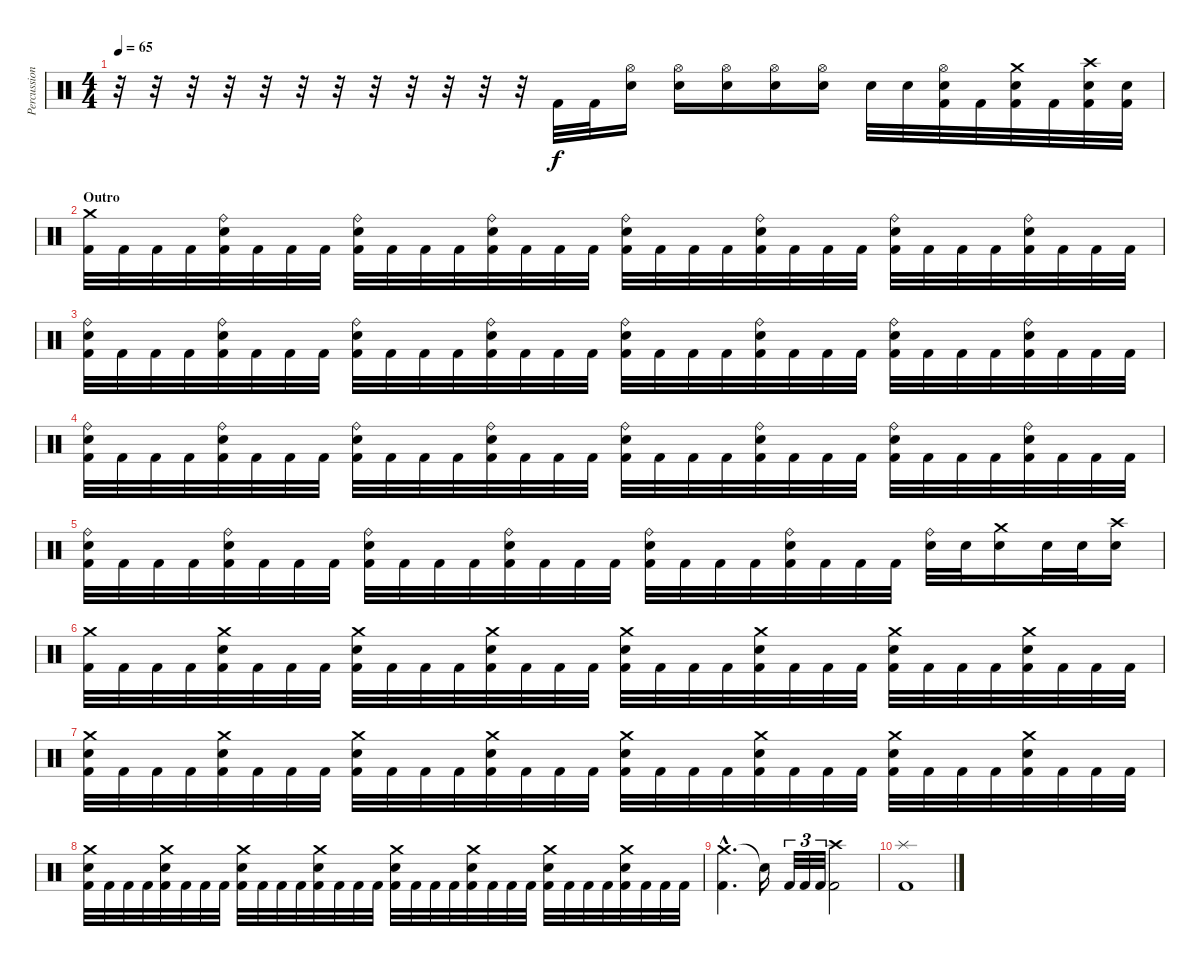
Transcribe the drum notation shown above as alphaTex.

\track ("Percussion" "Percussion") {instrument percussion}
\staff {score}
\articulation defaults
\ts (4 4)
\tempo 65
\clef neutral
\ks c
r.32{dy f} r.32 r.32 r.32 r.32 r.32 r.32 r.32 r.32 r.32 r.32 r.32 "Kick (hit) 2".32 "Kick (hit) 2".32 ("Hi-Hat (open)" "Electric Snare (hit)").16 ("Hi-Hat (open)" "Electric Snare (hit)").16 ("Hi-Hat (open)" "Electric Snare (hit)").16 ("Hi-Hat (open)" "Electric Snare (hit)").16 ("Hi-Hat (open)" "Electric Snare (hit)").16 "Electric Snare (hit)".32 "Electric Snare (hit)".32 ("Hi-Hat (open)" "Electric Snare (hit)" "Kick (hit) 2").32 "Kick (hit) 2".32 ("Crash medium (hit)" "Electric Snare (hit)" "Kick (hit) 2").32 "Kick (hit) 2".32 ("Crash high (hit)" "Electric Snare (hit)" "Kick (hit) 2").32 ("Electric Snare (hit)" "Kick (hit) 2").32 |
\section ("" "Outro")
("Crash medium (hit)" "Kick (hit) 2").32 "Kick (hit) 2".32 "Kick (hit) 2".32 "Kick (hit) 2".32 ("Ride (bell)" "Electric Snare (hit)" "Kick (hit) 2").32 "Kick (hit) 2".32 "Kick (hit) 2".32 "Kick (hit) 2".32 ("Ride (bell)" "Electric Snare (hit)" "Kick (hit) 2").32 "Kick (hit) 2".32 "Kick (hit) 2".32 "Kick (hit) 2".32 ("Ride (bell)" "Electric Snare (hit)" "Kick (hit) 2").32 "Kick (hit) 2".32 "Kick (hit) 2".32 "Kick (hit) 2".32 ("Ride (bell)" "Electric Snare (hit)" "Kick (hit) 2").32 "Kick (hit) 2".32 "Kick (hit) 2".32 "Kick (hit) 2".32 ("Ride (bell)" "Electric Snare (hit)" "Kick (hit) 2").32 "Kick (hit) 2".32 "Kick (hit) 2".32 "Kick (hit) 2".32 ("Ride (bell)" "Electric Snare (hit)" "Kick (hit) 2").32 "Kick (hit) 2".32 "Kick (hit) 2".32 "Kick (hit) 2".32 ("Ride (bell)" "Electric Snare (hit)" "Kick (hit) 2").32 "Kick (hit) 2".32 "Kick (hit) 2".32 "Kick (hit) 2".32 |
("Ride (bell)" "Electric Snare (hit)" "Kick (hit) 2").32 "Kick (hit) 2".32 "Kick (hit) 2".32 "Kick (hit) 2".32 ("Ride (bell)" "Electric Snare (hit)" "Kick (hit) 2").32 "Kick (hit) 2".32 "Kick (hit) 2".32 "Kick (hit) 2".32 ("Ride (bell)" "Electric Snare (hit)" "Kick (hit) 2").32 "Kick (hit) 2".32 "Kick (hit) 2".32 "Kick (hit) 2".32 ("Ride (bell)" "Electric Snare (hit)" "Kick (hit) 2").32 "Kick (hit) 2".32 "Kick (hit) 2".32 "Kick (hit) 2".32 ("Ride (bell)" "Electric Snare (hit)" "Kick (hit) 2").32 "Kick (hit) 2".32 "Kick (hit) 2".32 "Kick (hit) 2".32 ("Ride (bell)" "Electric Snare (hit)" "Kick (hit) 2").32 "Kick (hit) 2".32 "Kick (hit) 2".32 "Kick (hit) 2".32 ("Ride (bell)" "Electric Snare (hit)" "Kick (hit) 2").32 "Kick (hit) 2".32 "Kick (hit) 2".32 "Kick (hit) 2".32 ("Ride (bell)" "Electric Snare (hit)" "Kick (hit) 2").32 "Kick (hit) 2".32 "Kick (hit) 2".32 "Kick (hit) 2".32 |
("Ride (bell)" "Electric Snare (hit)" "Kick (hit) 2").32 "Kick (hit) 2".32 "Kick (hit) 2".32 "Kick (hit) 2".32 ("Ride (bell)" "Electric Snare (hit)" "Kick (hit) 2").32 "Kick (hit) 2".32 "Kick (hit) 2".32 "Kick (hit) 2".32 ("Ride (bell)" "Electric Snare (hit)" "Kick (hit) 2").32 "Kick (hit) 2".32 "Kick (hit) 2".32 "Kick (hit) 2".32 ("Ride (bell)" "Electric Snare (hit)" "Kick (hit) 2").32 "Kick (hit) 2".32 "Kick (hit) 2".32 "Kick (hit) 2".32 ("Ride (bell)" "Electric Snare (hit)" "Kick (hit) 2").32 "Kick (hit) 2".32 "Kick (hit) 2".32 "Kick (hit) 2".32 ("Ride (bell)" "Electric Snare (hit)" "Kick (hit) 2").32 "Kick (hit) 2".32 "Kick (hit) 2".32 "Kick (hit) 2".32 ("Ride (bell)" "Electric Snare (hit)" "Kick (hit) 2").32 "Kick (hit) 2".32 "Kick (hit) 2".32 "Kick (hit) 2".32 ("Ride (bell)" "Electric Snare (hit)" "Kick (hit) 2").32 "Kick (hit) 2".32 "Kick (hit) 2".32 "Kick (hit) 2".32 |
("Ride (bell)" "Electric Snare (hit)" "Kick (hit) 2").32 "Kick (hit) 2".32 "Kick (hit) 2".32 "Kick (hit) 2".32 ("Ride (bell)" "Electric Snare (hit)" "Kick (hit) 2").32 "Kick (hit) 2".32 "Kick (hit) 2".32 "Kick (hit) 2".32 ("Ride (bell)" "Electric Snare (hit)" "Kick (hit) 2").32 "Kick (hit) 2".32 "Kick (hit) 2".32 "Kick (hit) 2".32 ("Ride (bell)" "Electric Snare (hit)" "Kick (hit) 2").32 "Kick (hit) 2".32 "Kick (hit) 2".32 "Kick (hit) 2".32 ("Ride (bell)" "Electric Snare (hit)" "Kick (hit) 2").32 "Kick (hit) 2".32 "Kick (hit) 2".32 "Kick (hit) 2".32 ("Ride (bell)" "Electric Snare (hit)" "Kick (hit) 2").32 "Kick (hit) 2".32 "Kick (hit) 2".32 "Kick (hit) 2".32 ("Ride (bell)" "Electric Snare (hit)").32 "Electric Snare (hit)".32 ("Crash medium (hit)" "Electric Snare (hit)").16 "Electric Snare (hit)".32 "Electric Snare (hit)".32 ("Crash high (hit)" "Electric Snare (hit)").16 |
("Crash medium (hit)" "Kick (hit) 2").32 "Kick (hit) 2".32 "Kick (hit) 2".32 "Kick (hit) 2".32 ("Crash medium (hit)" "Electric Snare (hit)" "Kick (hit) 2").32 "Kick (hit) 2".32 "Kick (hit) 2".32 "Kick (hit) 2".32 ("Crash medium (hit)" "Electric Snare (hit)" "Kick (hit) 2").32 "Kick (hit) 2".32 "Kick (hit) 2".32 "Kick (hit) 2".32 ("Crash medium (hit)" "Electric Snare (hit)" "Kick (hit) 2").32 "Kick (hit) 2".32 "Kick (hit) 2".32 "Kick (hit) 2".32 ("Crash medium (hit)" "Electric Snare (hit)" "Kick (hit) 2").32 "Kick (hit) 2".32 "Kick (hit) 2".32 "Kick (hit) 2".32 ("Crash medium (hit)" "Electric Snare (hit)" "Kick (hit) 2").32 "Kick (hit) 2".32 "Kick (hit) 2".32 "Kick (hit) 2".32 ("Crash medium (hit)" "Electric Snare (hit)" "Kick (hit) 2").32 "Kick (hit) 2".32 "Kick (hit) 2".32 "Kick (hit) 2".32 ("Crash medium (hit)" "Electric Snare (hit)" "Kick (hit) 2").32 "Kick (hit) 2".32 "Kick (hit) 2".32 "Kick (hit) 2".32 |
("Crash medium (hit)" "Electric Snare (hit)" "Kick (hit) 2").32 "Kick (hit) 2".32 "Kick (hit) 2".32 "Kick (hit) 2".32 ("Crash medium (hit)" "Electric Snare (hit)" "Kick (hit) 2").32 "Kick (hit) 2".32 "Kick (hit) 2".32 "Kick (hit) 2".32 ("Crash medium (hit)" "Electric Snare (hit)" "Kick (hit) 2").32 "Kick (hit) 2".32 "Kick (hit) 2".32 "Kick (hit) 2".32 ("Crash medium (hit)" "Electric Snare (hit)" "Kick (hit) 2").32 "Kick (hit) 2".32 "Kick (hit) 2".32 "Kick (hit) 2".32 ("Crash medium (hit)" "Electric Snare (hit)" "Kick (hit) 2").32 "Kick (hit) 2".32 "Kick (hit) 2".32 "Kick (hit) 2".32 ("Crash medium (hit)" "Electric Snare (hit)" "Kick (hit) 2").32 "Kick (hit) 2".32 "Kick (hit) 2".32 "Kick (hit) 2".32 ("Crash medium (hit)" "Electric Snare (hit)" "Kick (hit) 2").32 "Kick (hit) 2".32 "Kick (hit) 2".32 "Kick (hit) 2".32 ("Crash medium (hit)" "Electric Snare (hit)" "Kick (hit) 2").32 "Kick (hit) 2".32 "Kick (hit) 2".32 "Kick (hit) 2".32 |
("Crash medium (hit)" "Electric Snare (hit)" "Kick (hit) 2").32 "Kick (hit) 2".32 "Kick (hit) 2".32 "Kick (hit) 2".32 ("Crash medium (hit)" "Electric Snare (hit)" "Kick (hit) 2").32 "Kick (hit) 2".32 "Kick (hit) 2".32 "Kick (hit) 2".32 ("Crash medium (hit)" "Electric Snare (hit)" "Kick (hit) 2").32 "Kick (hit) 2".32 "Kick (hit) 2".32 "Kick (hit) 2".32 ("Crash medium (hit)" "Electric Snare (hit)" "Kick (hit) 2").32 "Kick (hit) 2".32 "Kick (hit) 2".32 "Kick (hit) 2".32 ("Crash medium (hit)" "Electric Snare (hit)" "Kick (hit) 2").32 "Kick (hit) 2".32 "Kick (hit) 2".32 "Kick (hit) 2".32 ("Crash medium (hit)" "Electric Snare (hit)" "Kick (hit) 2").32 "Kick (hit) 2".32 "Kick (hit) 2".32 "Kick (hit) 2".32 ("Crash medium (hit)" "Electric Snare (hit)" "Kick (hit) 2").32 "Kick (hit) 2".32 "Kick (hit) 2".32 "Kick (hit) 2".32 ("Crash medium (hit)" "Electric Snare (hit)" "Kick (hit) 2").32 "Kick (hit) 2".32 "Kick (hit) 2".32 "Kick (hit) 2".32 |
("Crash medium (hit)"{hac} "Kick (hit) 2"{hac}).4{d} "Snare (hit)"{t}.16 "Kick (hit) 2".32{tu (3 2)} "Kick (hit) 2".32{tu (3 2)} "Kick (hit) 2".32{tu (3 2)} ("Crash high (hit)" "Kick (hit) 2").2 |
("Splash (hit)" "Kick (hit) 2").1
